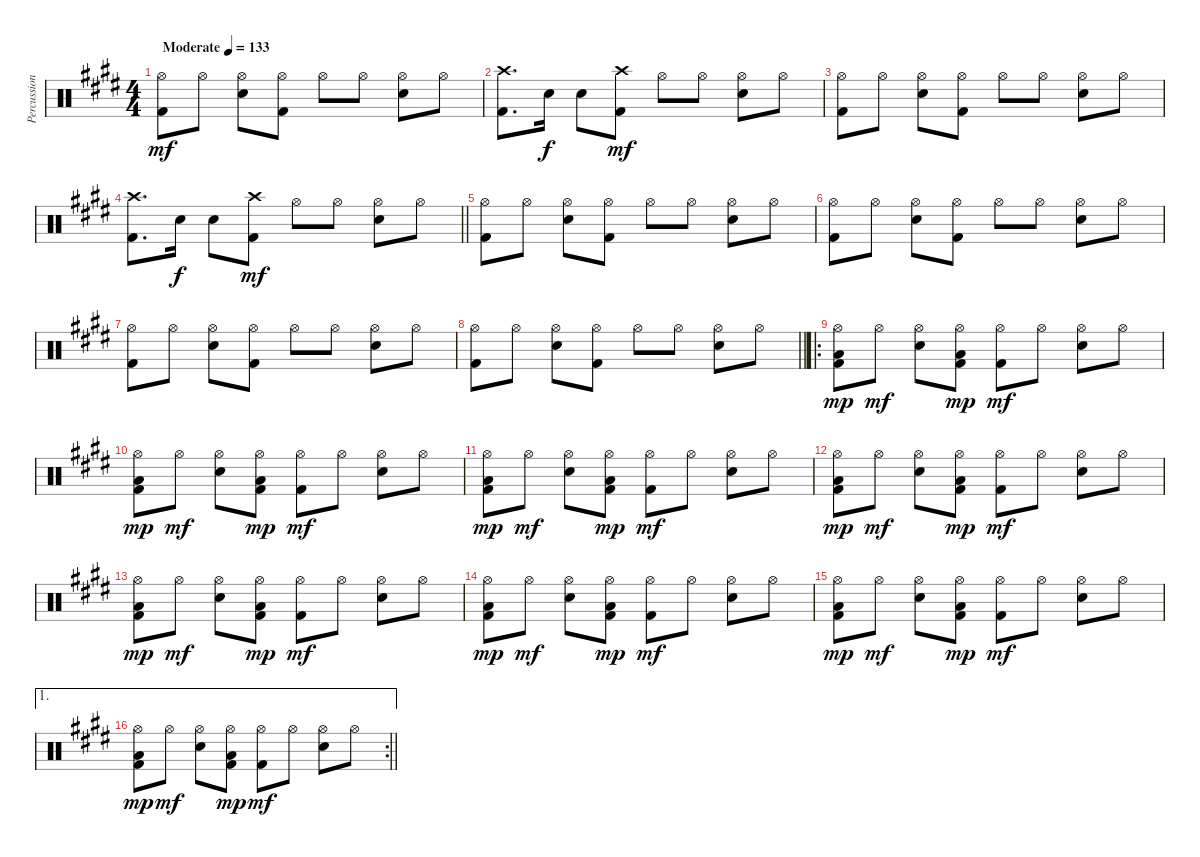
\track ("Percussion" "Percussion") {instrument percussion}
\staff {score}
\articulation defaults
\ts (4 4)
\tempo (133 "Moderate")
\clef neutral
\ks e
("Hi-Hat (open)" "Kick (hit) 2").8{dy mf} "Hi-Hat (open)".8 ("Hi-Hat (open)" "Snare (hit) 2").8 ("Hi-Hat (open)" "Kick (hit) 2").8 "Hi-Hat (open)".8 "Hi-Hat (open)".8 ("Hi-Hat (open)" "Snare (hit) 2").8 "Hi-Hat (open)".8 |
("Crash high (hit)" "Kick (hit) 2").8{d} "Snare (hit) 2".16{dy f} "Snare (hit) 2".8 ("Crash high (hit)" "Kick (hit) 2").8{dy mf} "Hi-Hat (open)".8 "Hi-Hat (open)".8 ("Hi-Hat (open)" "Snare (hit) 2").8 "Hi-Hat (open)".8 |
("Hi-Hat (open)" "Kick (hit) 2").8 "Hi-Hat (open)".8 ("Hi-Hat (open)" "Snare (hit) 2").8 ("Hi-Hat (open)" "Kick (hit) 2").8 "Hi-Hat (open)".8 "Hi-Hat (open)".8 ("Hi-Hat (open)" "Snare (hit) 2").8 "Hi-Hat (open)".8 |
\barLineRight lightlight
("Crash high (hit)" "Kick (hit) 2").8{d} "Snare (hit) 2".16{dy f} "Snare (hit) 2".8 ("Crash high (hit)" "Kick (hit) 2").8{dy mf} "Hi-Hat (open)".8 "Hi-Hat (open)".8 ("Hi-Hat (open)" "Snare (hit) 2").8 "Hi-Hat (open)".8 |
("Hi-Hat (open)" "Kick (hit) 2").8 "Hi-Hat (open)".8 ("Hi-Hat (open)" "Snare (hit) 2").8 ("Hi-Hat (open)" "Kick (hit) 2").8 "Hi-Hat (open)".8 "Hi-Hat (open)".8 ("Hi-Hat (open)" "Snare (hit) 2").8 "Hi-Hat (open)".8 |
("Hi-Hat (open)" "Kick (hit) 2").8 "Hi-Hat (open)".8 ("Hi-Hat (open)" "Snare (hit) 2").8 ("Hi-Hat (open)" "Kick (hit) 2").8 "Hi-Hat (open)".8 "Hi-Hat (open)".8 ("Hi-Hat (open)" "Snare (hit) 2").8 "Hi-Hat (open)".8 |
("Hi-Hat (open)" "Kick (hit) 2").8 "Hi-Hat (open)".8 ("Hi-Hat (open)" "Snare (hit) 2").8 ("Hi-Hat (open)" "Kick (hit) 2").8 "Hi-Hat (open)".8 "Hi-Hat (open)".8 ("Hi-Hat (open)" "Snare (hit) 2").8 "Hi-Hat (open)".8 |
\barLineRight lightlight
("Hi-Hat (open)" "Kick (hit) 2").8 "Hi-Hat (open)".8 ("Hi-Hat (open)" "Snare (hit) 2").8 ("Hi-Hat (open)" "Kick (hit) 2").8 "Hi-Hat (open)".8 "Hi-Hat (open)".8 ("Hi-Hat (open)" "Snare (hit) 2").8 "Hi-Hat (open)".8 |
\ro
("Hi-Hat (open)" "Kick (hit) 2" "Low Floor Tom (hit)").8{dy mp} "Hi-Hat (open)".8{dy mf} ("Hi-Hat (open)" "Snare (hit) 2").8 ("Hi-Hat (open)" "Kick (hit) 2" "Low Floor Tom (hit)").8{dy mp} ("Hi-Hat (open)" "Kick (hit) 2").8{dy mf} "Hi-Hat (open)".8 ("Hi-Hat (open)" "Snare (hit) 2").8 "Hi-Hat (open)".8 |
("Hi-Hat (open)" "Kick (hit) 2" "Low Floor Tom (hit)").8{dy mp} "Hi-Hat (open)".8{dy mf} ("Hi-Hat (open)" "Snare (hit) 2").8 ("Hi-Hat (open)" "Kick (hit) 2" "Low Floor Tom (hit)").8{dy mp} ("Hi-Hat (open)" "Kick (hit) 2").8{dy mf} "Hi-Hat (open)".8 ("Hi-Hat (open)" "Snare (hit) 2").8 "Hi-Hat (open)".8 |
("Hi-Hat (open)" "Kick (hit) 2" "Low Floor Tom (hit)").8{dy mp} "Hi-Hat (open)".8{dy mf} ("Hi-Hat (open)" "Snare (hit) 2").8 ("Hi-Hat (open)" "Kick (hit) 2" "Low Floor Tom (hit)").8{dy mp} ("Hi-Hat (open)" "Kick (hit) 2").8{dy mf} "Hi-Hat (open)".8 ("Hi-Hat (open)" "Snare (hit) 2").8 "Hi-Hat (open)".8 |
("Hi-Hat (open)" "Kick (hit) 2" "Low Floor Tom (hit)").8{dy mp} "Hi-Hat (open)".8{dy mf} ("Hi-Hat (open)" "Snare (hit) 2").8 ("Hi-Hat (open)" "Kick (hit) 2" "Low Floor Tom (hit)").8{dy mp} ("Hi-Hat (open)" "Kick (hit) 2").8{dy mf} "Hi-Hat (open)".8 ("Hi-Hat (open)" "Snare (hit) 2").8 "Hi-Hat (open)".8 |
("Hi-Hat (open)" "Kick (hit) 2" "Low Floor Tom (hit)").8{dy mp} "Hi-Hat (open)".8{dy mf} ("Hi-Hat (open)" "Snare (hit) 2").8 ("Hi-Hat (open)" "Kick (hit) 2" "Low Floor Tom (hit)").8{dy mp} ("Hi-Hat (open)" "Kick (hit) 2").8{dy mf} "Hi-Hat (open)".8 ("Hi-Hat (open)" "Snare (hit) 2").8 "Hi-Hat (open)".8 |
("Hi-Hat (open)" "Kick (hit) 2" "Low Floor Tom (hit)").8{dy mp} "Hi-Hat (open)".8{dy mf} ("Hi-Hat (open)" "Snare (hit) 2").8 ("Hi-Hat (open)" "Kick (hit) 2" "Low Floor Tom (hit)").8{dy mp} ("Hi-Hat (open)" "Kick (hit) 2").8{dy mf} "Hi-Hat (open)".8 ("Hi-Hat (open)" "Snare (hit) 2").8 "Hi-Hat (open)".8 |
("Hi-Hat (open)" "Kick (hit) 2" "Low Floor Tom (hit)").8{dy mp} "Hi-Hat (open)".8{dy mf} ("Hi-Hat (open)" "Snare (hit) 2").8 ("Hi-Hat (open)" "Kick (hit) 2" "Low Floor Tom (hit)").8{dy mp} ("Hi-Hat (open)" "Kick (hit) 2").8{dy mf} "Hi-Hat (open)".8 ("Hi-Hat (open)" "Snare (hit) 2").8 "Hi-Hat (open)".8 |
\ae 1
\rc 2
\barLineRight lightlight
("Hi-Hat (open)" "Kick (hit) 2" "Low Floor Tom (hit)").8{dy mp} "Hi-Hat (open)".8{dy mf} ("Hi-Hat (open)" "Snare (hit) 2").8 ("Hi-Hat (open)" "Kick (hit) 2" "Low Floor Tom (hit)").8{dy mp} ("Hi-Hat (open)" "Kick (hit) 2").8{dy mf} "Hi-Hat (open)".8 ("Hi-Hat (open)" "Snare (hit) 2").8 "Hi-Hat (open)".8
